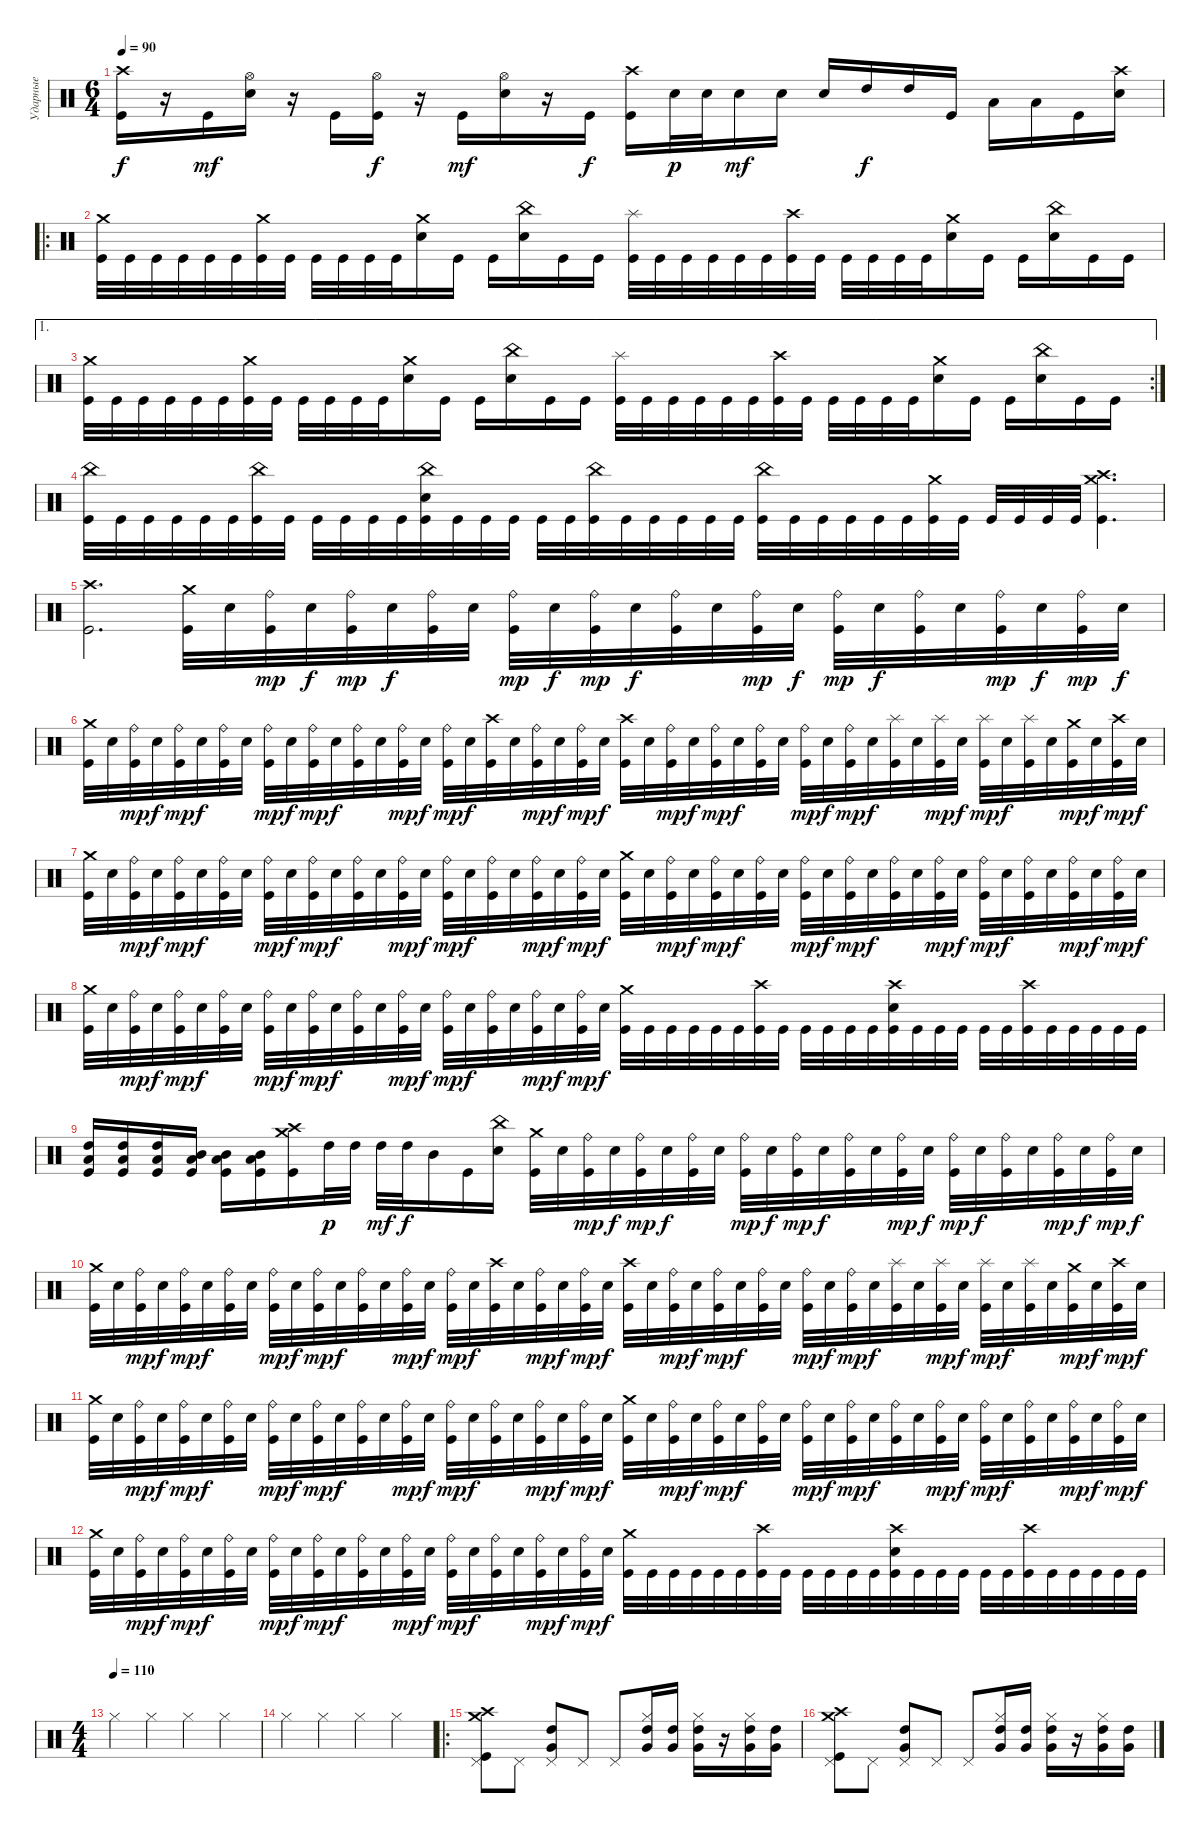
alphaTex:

\track ("Ударные" "Ударные") {instrument percussion}
\staff {score}
\articulation defaults
\ts (6 4)
\tempo 90
\clef neutral
\ks c
("Crash high (hit)" "Kick (hit)").16{dy f} r.16 "Kick (hit)".16{dy mf} ("Hi-Hat (open)" "Snare (hit) 2").16 r.16 "Kick (hit)".16 ("Hi-Hat (open)" "Kick (hit)").16{dy f} r.16 "Kick (hit)".16{dy mf} ("Hi-Hat (open)" "Snare (hit) 2").16 r.16 "Kick (hit)".16{dy f} ("Crash high (hit)" "Kick (hit)").16 "Snare (hit) 2".32{dy p} "Snare (hit) 2".32 "Snare (hit) 2".16{dy mf} "Snare (hit) 2".16 "Snare (hit) 2".16 "High Tom (hit)".16{dy f} "High Tom (hit)".16 "Kick (hit)".16 "Low Tom (hit)".16 "Low Tom (hit)".16 "Kick (hit)".16 ("Crash high (hit)" "Snare (hit) 2").16 |
\ro
("Crash medium (hit)" "Kick (hit)").32 "Kick (hit)".32 "Kick (hit)".32 "Kick (hit)".32 "Kick (hit)".32 "Kick (hit)".32 ("Crash medium (hit)" "Kick (hit)").32 "Kick (hit)".32 "Kick (hit)".32 "Kick (hit)".32 "Kick (hit)".32 "Kick (hit)".32 ("Crash medium (hit)" "Snare (hit) 2").16 "Kick (hit)".16 "Kick (hit)".16 ("China (hit)" "Snare (hit) 2").16 "Kick (hit)".16 "Kick (hit)".16 ("Splash (hit)" "Kick (hit)").32 "Kick (hit)".32 "Kick (hit)".32 "Kick (hit)".32 "Kick (hit)".32 "Kick (hit)".32 ("Crash high (hit)" "Kick (hit)").32 "Kick (hit)".32 "Kick (hit)".32 "Kick (hit)".32 "Kick (hit)".32 "Kick (hit)".32 ("Crash medium (hit)" "Snare (hit) 2").16 "Kick (hit)".16 "Kick (hit)".16 ("China (hit)" "Snare (hit) 2").16 "Kick (hit)".16 "Kick (hit)".16 |
\ae 1
\rc 2
("Crash medium (hit)" "Kick (hit)").32 "Kick (hit)".32 "Kick (hit)".32 "Kick (hit)".32 "Kick (hit)".32 "Kick (hit)".32 ("Crash medium (hit)" "Kick (hit)").32 "Kick (hit)".32 "Kick (hit)".32 "Kick (hit)".32 "Kick (hit)".32 "Kick (hit)".32 ("Crash medium (hit)" "Snare (hit) 2").16 "Kick (hit)".16 "Kick (hit)".16 ("China (hit)" "Snare (hit) 2").16 "Kick (hit)".16 "Kick (hit)".16 ("Splash (hit)" "Kick (hit)").32 "Kick (hit)".32 "Kick (hit)".32 "Kick (hit)".32 "Kick (hit)".32 "Kick (hit)".32 ("Crash high (hit)" "Kick (hit)").32 "Kick (hit)".32 "Kick (hit)".32 "Kick (hit)".32 "Kick (hit)".32 "Kick (hit)".32 ("Crash medium (hit)" "Snare (hit) 2").16 "Kick (hit)".16 "Kick (hit)".16 ("China (hit)" "Snare (hit) 2").16 "Kick (hit)".16 "Kick (hit)".16 |
("China (hit)" "Kick (hit)").32 "Kick (hit)".32 "Kick (hit)".32 "Kick (hit)".32 "Kick (hit)".32 "Kick (hit)".32 ("China (hit)" "Kick (hit)").32 "Kick (hit)".32 "Kick (hit)".32 "Kick (hit)".32 "Kick (hit)".32 "Kick (hit)".32 ("Snare (hit) 2" "China (hit)" "Kick (hit)").32 "Kick (hit)".32 "Kick (hit)".32 "Kick (hit)".32 "Kick (hit)".32 "Kick (hit)".32 ("China (hit)" "Kick (hit)").32 "Kick (hit)".32 "Kick (hit)".32 "Kick (hit)".32 "Kick (hit)".32 "Kick (hit)".32 ("China (hit)" "Kick (hit)").32 "Kick (hit)".32 "Kick (hit)".32 "Kick (hit)".32 "Kick (hit)".32 "Kick (hit)".32 ("Crash medium (hit)" "Kick (hit)").32 "Kick (hit)".32 "Kick (hit)".32 "Kick (hit)".32 "Kick (hit)".32 "Kick (hit)".32 ("Crash high (hit)" "Crash medium (hit)" "Kick (hit)").4{d} |
("Crash high (hit)" "Kick (hit)").2{d} ("Crash medium (hit)" "Kick (hit)").32 "Snare (hit) 2".32 ("Ride (bell)" "Kick (hit)").32{dy mp} "Snare (hit) 2".32{dy f} ("Ride (bell)" "Kick (hit)").32{dy mp} "Snare (hit) 2".32{dy f} ("Ride (bell)" "Kick (hit)").32 "Snare (hit) 2".32 ("Ride (bell)" "Kick (hit)").32{dy mp} "Snare (hit) 2".32{dy f} ("Ride (bell)" "Kick (hit)").32{dy mp} "Snare (hit) 2".32{dy f} ("Ride (bell)" "Kick (hit)").32 "Snare (hit) 2".32 ("Ride (bell)" "Kick (hit)").32{dy mp} "Snare (hit) 2".32{dy f} ("Ride (bell)" "Kick (hit)").32{dy mp} "Snare (hit) 2".32{dy f} ("Ride (bell)" "Kick (hit)").32 "Snare (hit) 2".32 ("Ride (bell)" "Kick (hit)").32{dy mp} "Snare (hit) 2".32{dy f} ("Ride (bell)" "Kick (hit)").32{dy mp} "Snare (hit) 2".32{dy f} |
("Crash medium (hit)" "Kick (hit)").32 "Snare (hit) 2".32 ("Ride (bell)" "Kick (hit)").32{dy mp} "Snare (hit) 2".32{dy f} ("Ride (bell)" "Kick (hit)").32{dy mp} "Snare (hit) 2".32{dy f} ("Ride (bell)" "Kick (hit)").32 "Snare (hit) 2".32 ("Ride (bell)" "Kick (hit)").32{dy mp} "Snare (hit) 2".32{dy f} ("Ride (bell)" "Kick (hit)").32{dy mp} "Snare (hit) 2".32{dy f} ("Ride (bell)" "Kick (hit)").32 "Snare (hit) 2".32 ("Ride (bell)" "Kick (hit)").32{dy mp} "Snare (hit) 2".32{dy f} ("Ride (bell)" "Kick (hit)").32{dy mp} "Snare (hit) 2".32{dy f} ("Crash high (hit)" "Kick (hit)").32 "Snare (hit) 2".32 ("Ride (bell)" "Kick (hit)").32{dy mp} "Snare (hit) 2".32{dy f} ("Ride (bell)" "Kick (hit)").32{dy mp} "Snare (hit) 2".32{dy f} ("Crash high (hit)" "Kick (hit)").32 "Snare (hit) 2".32 ("Ride (bell)" "Kick (hit)").32{dy mp} "Snare (hit) 2".32{dy f} ("Ride (bell)" "Kick (hit)").32{dy mp} "Snare (hit) 2".32{dy f} ("Ride (bell)" "Kick (hit)").32 "Snare (hit) 2".32 ("Ride (bell)" "Kick (hit)").32{dy mp} "Snare (hit) 2".32{dy f} ("Ride (bell)" "Kick (hit)").32{dy mp} "Snare (hit) 2".32{dy f} ("Splash (hit)" "Kick (hit)").32 "Snare (hit) 2".32 ("Splash (hit)" "Kick (hit)").32{dy mp} "Snare (hit) 2".32{dy f} ("Splash (hit)" "Kick (hit)").32{dy mp} "Snare (hit) 2".32{dy f} ("Splash (hit)" "Kick (hit)").32 "Snare (hit) 2".32 ("Crash medium (hit)" "Kick (hit)").32{dy mp} "Snare (hit) 2".32{dy f} ("Crash high (hit)" "Kick (hit)").32{dy mp} "Snare (hit) 2".32{dy f} |
("Crash medium (hit)" "Kick (hit)").32 "Snare (hit) 2".32 ("Ride (bell)" "Kick (hit)").32{dy mp} "Snare (hit) 2".32{dy f} ("Ride (bell)" "Kick (hit)").32{dy mp} "Snare (hit) 2".32{dy f} ("Ride (bell)" "Kick (hit)").32 "Snare (hit) 2".32 ("Ride (bell)" "Kick (hit)").32{dy mp} "Snare (hit) 2".32{dy f} ("Ride (bell)" "Kick (hit)").32{dy mp} "Snare (hit) 2".32{dy f} ("Ride (bell)" "Kick (hit)").32 "Snare (hit) 2".32 ("Ride (bell)" "Kick (hit)").32{dy mp} "Snare (hit) 2".32{dy f} ("Ride (bell)" "Kick (hit)").32{dy mp} "Snare (hit) 2".32{dy f} ("Ride (bell)" "Kick (hit)").32 "Snare (hit) 2".32 ("Ride (bell)" "Kick (hit)").32{dy mp} "Snare (hit) 2".32{dy f} ("Ride (bell)" "Kick (hit)").32{dy mp} "Snare (hit) 2".32{dy f} ("Crash medium (hit)" "Kick (hit)").32 "Snare (hit) 2".32 ("Ride (bell)" "Kick (hit)").32{dy mp} "Snare (hit) 2".32{dy f} ("Ride (bell)" "Kick (hit)").32{dy mp} "Snare (hit) 2".32{dy f} ("Ride (bell)" "Kick (hit)").32 "Snare (hit) 2".32 ("Ride (bell)" "Kick (hit)").32{dy mp} "Snare (hit) 2".32{dy f} ("Ride (bell)" "Kick (hit)").32{dy mp} "Snare (hit) 2".32{dy f} ("Ride (bell)" "Kick (hit)").32 "Snare (hit) 2".32 ("Ride (bell)" "Kick (hit)").32{dy mp} "Snare (hit) 2".32{dy f} ("Ride (bell)" "Kick (hit)").32{dy mp} "Snare (hit) 2".32{dy f} ("Ride (bell)" "Kick (hit)").32 "Snare (hit) 2".32 ("Ride (bell)" "Kick (hit)").32{dy mp} "Snare (hit) 2".32{dy f} ("Ride (bell)" "Kick (hit)").32{dy mp} "Snare (hit) 2".32{dy f} |
("Crash medium (hit)" "Kick (hit)").32 "Snare (hit) 2".32 ("Ride (bell)" "Kick (hit)").32{dy mp} "Snare (hit) 2".32{dy f} ("Ride (bell)" "Kick (hit)").32{dy mp} "Snare (hit) 2".32{dy f} ("Ride (bell)" "Kick (hit)").32 "Snare (hit) 2".32 ("Ride (bell)" "Kick (hit)").32{dy mp} "Snare (hit) 2".32{dy f} ("Ride (bell)" "Kick (hit)").32{dy mp} "Snare (hit) 2".32{dy f} ("Ride (bell)" "Kick (hit)").32 "Snare (hit) 2".32 ("Ride (bell)" "Kick (hit)").32{dy mp} "Snare (hit) 2".32{dy f} ("Ride (bell)" "Kick (hit)").32{dy mp} "Snare (hit) 2".32{dy f} ("Ride (bell)" "Kick (hit)").32 "Snare (hit) 2".32 ("Ride (bell)" "Kick (hit)").32{dy mp} "Snare (hit) 2".32{dy f} ("Ride (bell)" "Kick (hit)").32{dy mp} "Snare (hit) 2".32{dy f} ("Crash medium (hit)" "Kick (hit)").32 "Kick (hit)".32 "Kick (hit)".32 "Kick (hit)".32 "Kick (hit)".32 "Kick (hit)".32 ("Crash high (hit)" "Kick (hit)").32 "Kick (hit)".32 "Kick (hit)".32 "Kick (hit)".32 "Kick (hit)".32 "Kick (hit)".32 ("Snare (hit) 2" "Crash high (hit)" "Kick (hit)").32 "Kick (hit)".32 "Kick (hit)".32 "Kick (hit)".32 "Kick (hit)".32 "Kick (hit)".32 ("Crash high (hit)" "Kick (hit)").32 "Kick (hit)".32 "Kick (hit)".32 "Kick (hit)".32 "Kick (hit)".32 "Kick (hit)".32 |
("Low Floor Tom (hit)" "High Tom (hit)" "Kick (hit)").16 ("Low Floor Tom (hit)" "High Tom (hit)" "Kick (hit)").16 ("Low Floor Tom (hit)" "High Tom (hit)" "Kick (hit)").16 ("Low Floor Tom (hit)" "Mid Tom (hit)" "Kick (hit)").16 ("Low Floor Tom (hit)" "Mid Tom (hit)" "Kick (hit)").16 ("Low Floor Tom (hit)" "Mid Tom (hit)" "Kick (hit)").16 ("Crash high (hit)" "Crash medium (hit)" "Kick (hit)").16 "High Tom (hit)".32{dy p} "High Tom (hit)".32 "High Tom (hit)".32{dy mf} "High Tom (hit)".32{dy f} "Mid Tom (hit)".16 "Kick (hit)".16 ("China (hit)" "Snare (hit) 2").16 ("Crash medium (hit)" "Kick (hit)").32 "Snare (hit) 2".32 ("Ride (bell)" "Kick (hit)").32{dy mp} "Snare (hit) 2".32{dy f} ("Ride (bell)" "Kick (hit)").32{dy mp} "Snare (hit) 2".32{dy f} ("Ride (bell)" "Kick (hit)").32 "Snare (hit) 2".32 ("Ride (bell)" "Kick (hit)").32{dy mp} "Snare (hit) 2".32{dy f} ("Ride (bell)" "Kick (hit)").32{dy mp} "Snare (hit) 2".32{dy f} ("Ride (bell)" "Kick (hit)").32 "Snare (hit) 2".32 ("Ride (bell)" "Kick (hit)").32{dy mp} "Snare (hit) 2".32{dy f} ("Ride (bell)" "Kick (hit)").32{dy mp} "Snare (hit) 2".32{dy f} ("Ride (bell)" "Kick (hit)").32 "Snare (hit) 2".32 ("Ride (bell)" "Kick (hit)").32{dy mp} "Snare (hit) 2".32{dy f} ("Ride (bell)" "Kick (hit)").32{dy mp} "Snare (hit) 2".32{dy f} |
("Crash medium (hit)" "Kick (hit)").32 "Snare (hit) 2".32 ("Ride (bell)" "Kick (hit)").32{dy mp} "Snare (hit) 2".32{dy f} ("Ride (bell)" "Kick (hit)").32{dy mp} "Snare (hit) 2".32{dy f} ("Ride (bell)" "Kick (hit)").32 "Snare (hit) 2".32 ("Ride (bell)" "Kick (hit)").32{dy mp} "Snare (hit) 2".32{dy f} ("Ride (bell)" "Kick (hit)").32{dy mp} "Snare (hit) 2".32{dy f} ("Ride (bell)" "Kick (hit)").32 "Snare (hit) 2".32 ("Ride (bell)" "Kick (hit)").32{dy mp} "Snare (hit) 2".32{dy f} ("Ride (bell)" "Kick (hit)").32{dy mp} "Snare (hit) 2".32{dy f} ("Crash high (hit)" "Kick (hit)").32 "Snare (hit) 2".32 ("Ride (bell)" "Kick (hit)").32{dy mp} "Snare (hit) 2".32{dy f} ("Ride (bell)" "Kick (hit)").32{dy mp} "Snare (hit) 2".32{dy f} ("Crash high (hit)" "Kick (hit)").32 "Snare (hit) 2".32 ("Ride (bell)" "Kick (hit)").32{dy mp} "Snare (hit) 2".32{dy f} ("Ride (bell)" "Kick (hit)").32{dy mp} "Snare (hit) 2".32{dy f} ("Ride (bell)" "Kick (hit)").32 "Snare (hit) 2".32 ("Ride (bell)" "Kick (hit)").32{dy mp} "Snare (hit) 2".32{dy f} ("Ride (bell)" "Kick (hit)").32{dy mp} "Snare (hit) 2".32{dy f} ("Splash (hit)" "Kick (hit)").32 "Snare (hit) 2".32 ("Splash (hit)" "Kick (hit)").32{dy mp} "Snare (hit) 2".32{dy f} ("Splash (hit)" "Kick (hit)").32{dy mp} "Snare (hit) 2".32{dy f} ("Splash (hit)" "Kick (hit)").32 "Snare (hit) 2".32 ("Crash medium (hit)" "Kick (hit)").32{dy mp} "Snare (hit) 2".32{dy f} ("Crash high (hit)" "Kick (hit)").32{dy mp} "Snare (hit) 2".32{dy f} |
("Crash medium (hit)" "Kick (hit)").32 "Snare (hit) 2".32 ("Ride (bell)" "Kick (hit)").32{dy mp} "Snare (hit) 2".32{dy f} ("Ride (bell)" "Kick (hit)").32{dy mp} "Snare (hit) 2".32{dy f} ("Ride (bell)" "Kick (hit)").32 "Snare (hit) 2".32 ("Ride (bell)" "Kick (hit)").32{dy mp} "Snare (hit) 2".32{dy f} ("Ride (bell)" "Kick (hit)").32{dy mp} "Snare (hit) 2".32{dy f} ("Ride (bell)" "Kick (hit)").32 "Snare (hit) 2".32 ("Ride (bell)" "Kick (hit)").32{dy mp} "Snare (hit) 2".32{dy f} ("Ride (bell)" "Kick (hit)").32{dy mp} "Snare (hit) 2".32{dy f} ("Ride (bell)" "Kick (hit)").32 "Snare (hit) 2".32 ("Ride (bell)" "Kick (hit)").32{dy mp} "Snare (hit) 2".32{dy f} ("Ride (bell)" "Kick (hit)").32{dy mp} "Snare (hit) 2".32{dy f} ("Crash medium (hit)" "Kick (hit)").32 "Snare (hit) 2".32 ("Ride (bell)" "Kick (hit)").32{dy mp} "Snare (hit) 2".32{dy f} ("Ride (bell)" "Kick (hit)").32{dy mp} "Snare (hit) 2".32{dy f} ("Ride (bell)" "Kick (hit)").32 "Snare (hit) 2".32 ("Ride (bell)" "Kick (hit)").32{dy mp} "Snare (hit) 2".32{dy f} ("Ride (bell)" "Kick (hit)").32{dy mp} "Snare (hit) 2".32{dy f} ("Ride (bell)" "Kick (hit)").32 "Snare (hit) 2".32 ("Ride (bell)" "Kick (hit)").32{dy mp} "Snare (hit) 2".32{dy f} ("Ride (bell)" "Kick (hit)").32{dy mp} "Snare (hit) 2".32{dy f} ("Ride (bell)" "Kick (hit)").32 "Snare (hit) 2".32 ("Ride (bell)" "Kick (hit)").32{dy mp} "Snare (hit) 2".32{dy f} ("Ride (bell)" "Kick (hit)").32{dy mp} "Snare (hit) 2".32{dy f} |
("Crash medium (hit)" "Kick (hit)").32 "Snare (hit) 2".32 ("Ride (bell)" "Kick (hit)").32{dy mp} "Snare (hit) 2".32{dy f} ("Ride (bell)" "Kick (hit)").32{dy mp} "Snare (hit) 2".32{dy f} ("Ride (bell)" "Kick (hit)").32 "Snare (hit) 2".32 ("Ride (bell)" "Kick (hit)").32{dy mp} "Snare (hit) 2".32{dy f} ("Ride (bell)" "Kick (hit)").32{dy mp} "Snare (hit) 2".32{dy f} ("Ride (bell)" "Kick (hit)").32 "Snare (hit) 2".32 ("Ride (bell)" "Kick (hit)").32{dy mp} "Snare (hit) 2".32{dy f} ("Ride (bell)" "Kick (hit)").32{dy mp} "Snare (hit) 2".32{dy f} ("Ride (bell)" "Kick (hit)").32 "Snare (hit) 2".32 ("Ride (bell)" "Kick (hit)").32{dy mp} "Snare (hit) 2".32{dy f} ("Ride (bell)" "Kick (hit)").32{dy mp} "Snare (hit) 2".32{dy f} ("Crash medium (hit)" "Kick (hit)").32 "Kick (hit)".32 "Kick (hit)".32 "Kick (hit)".32 "Kick (hit)".32 "Kick (hit)".32 ("Crash high (hit)" "Kick (hit)").32 "Kick (hit)".32 "Kick (hit)".32 "Kick (hit)".32 "Kick (hit)".32 "Kick (hit)".32 ("Snare (hit) 2" "Crash high (hit)" "Kick (hit)").32 "Kick (hit)".32 "Kick (hit)".32 "Kick (hit)".32 "Kick (hit)".32 "Kick (hit)".32 ("Crash high (hit)" "Kick (hit)").32 "Kick (hit)".32 "Kick (hit)".32 "Kick (hit)".32 "Kick (hit)".32 "Kick (hit)".32 |
\ts (4 4)
\tempo (110)
"Hi-Hat (closed)".4 "Hi-Hat (closed)".4 "Hi-Hat (closed)".4 "Hi-Hat (closed)".4 |
"Hi-Hat (closed)".4 "Hi-Hat (closed)".4 "Hi-Hat (closed)".4 "Hi-Hat (closed)".4 |
\ro
("Crash medium (hit)" "Crash high (hit)" "Kick (hit)" "Pedal Hi-Hat (hit)").8 "Pedal Hi-Hat (hit)".8 ("High Tom (hit)" "Very Low Tom (hit)" "Pedal Hi-Hat (hit)").8 "Pedal Hi-Hat (hit)".8 "Pedal Hi-Hat (hit)".8 ("High Tom (hit)" "Very Low Tom (hit)" "Hi-Hat (closed)").16 ("High Tom (hit)" "Very Low Tom (hit)").16 ("High Tom (hit)" "Very Low Tom (hit)" "Hi-Hat (closed)").16 r.16 ("High Tom (hit)" "Very Low Tom (hit)" "Hi-Hat (closed)").16 ("High Tom (hit)" "Very Low Tom (hit)").16 |
("Crash medium (hit)" "Crash high (hit)" "Kick (hit)" "Pedal Hi-Hat (hit)").8 "Pedal Hi-Hat (hit)".8 ("High Tom (hit)" "Very Low Tom (hit)" "Pedal Hi-Hat (hit)").8 "Pedal Hi-Hat (hit)".8 "Pedal Hi-Hat (hit)".8 ("High Tom (hit)" "Very Low Tom (hit)" "Hi-Hat (closed)").16 ("High Tom (hit)" "Very Low Tom (hit)").16 ("High Tom (hit)" "Very Low Tom (hit)" "Hi-Hat (closed)").16 r.16 ("High Tom (hit)" "Very Low Tom (hit)" "Hi-Hat (closed)").16 ("High Tom (hit)" "Very Low Tom (hit)").16
